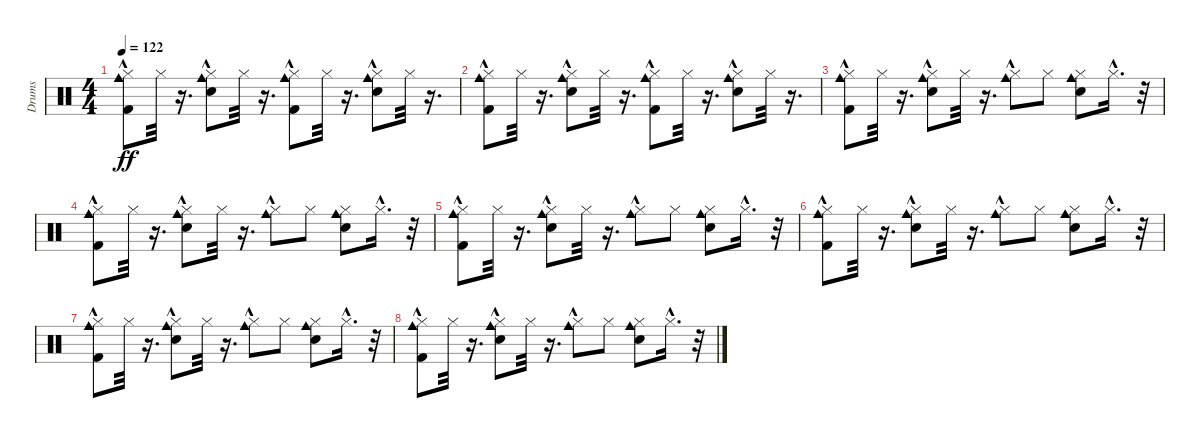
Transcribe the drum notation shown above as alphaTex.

\track ("Drums" "Drums") {instrument percussion}
\staff {score}
\articulation defaults
\ts (4 4)
\tempo 122
\clef neutral
\ks c
("Kick (hit) 2"{hac} "Hi-Hat (closed)"{hac} "Cowbell medium (hit)").8{dy ff volume 9} "Hi-Hat (closed)".32{volume 9} r.16{d} ("Snare (hit) 2"{hac} "Hi-Hat (closed)"{hac} "Cowbell medium (hit)").8{volume 8} "Hi-Hat (closed)".32{volume 8} r.16{d} ("Kick (hit) 2"{hac} "Hi-Hat (closed)"{hac} "Cowbell medium (hit)").8{volume 8} "Hi-Hat (closed)".32{volume 8} r.16{d} ("Cowbell medium (hit)" "Snare (hit) 2"{hac} "Hi-Hat (closed)"{hac}).8{volume 8} "Hi-Hat (closed)".32{volume 8} r.16{d} |
("Kick (hit) 2"{hac} "Hi-Hat (closed)"{hac} "Cowbell medium (hit)").8{volume 8} "Hi-Hat (closed)".32{volume 8} r.16{d} ("Snare (hit) 2"{hac} "Hi-Hat (closed)"{hac} "Cowbell medium (hit)").8{volume 8} "Hi-Hat (closed)".32{volume 7} r.16{d} ("Kick (hit) 2"{hac} "Hi-Hat (closed)"{hac} "Cowbell medium (hit)").8{volume 7} "Hi-Hat (closed)".32{volume 7} r.16{d} ("Cowbell medium (hit)" "Snare (hit) 2"{hac} "Hi-Hat (closed)"{hac}).8{volume 7} "Hi-Hat (closed)".32{volume 7} r.16{d} |
("Kick (hit) 2"{hac} "Hi-Hat (closed)"{hac} "Cowbell medium (hit)").8{volume 7} "Hi-Hat (closed)".32{volume 6} r.16{d} ("Snare (hit) 2"{hac} "Hi-Hat (closed)"{hac} "Cowbell medium (hit)").8{volume 6} "Hi-Hat (closed)".32{volume 6} r.16{d} ("Hi-Hat (closed)" "Cowbell medium (hit)"{hac}).8{volume 6} "Hi-Hat (closed)".8{volume 6} ("Cowbell medium (hit)" "Snare (hit) 2" "Hi-Hat (closed)").8{volume 6} "Hi-Hat (closed)"{hac}.16{d volume 6} r.32 |
("Kick (hit) 2"{hac} "Hi-Hat (closed)"{hac} "Cowbell medium (hit)").8{volume 6} "Hi-Hat (closed)".32{volume 5} r.16{d} ("Snare (hit) 2"{hac} "Hi-Hat (closed)"{hac} "Cowbell medium (hit)").8{volume 5} "Hi-Hat (closed)".32{volume 5} r.16{d} ("Hi-Hat (closed)" "Cowbell medium (hit)"{hac}).8{volume 5} "Hi-Hat (closed)".8{volume 5} ("Cowbell medium (hit)" "Snare (hit) 2" "Hi-Hat (closed)").8{volume 5} "Hi-Hat (closed)"{hac}.16{d volume 5} r.32 |
("Kick (hit) 2"{hac} "Hi-Hat (closed)"{hac} "Cowbell medium (hit)").8{volume 4} "Hi-Hat (closed)".32{volume 4} r.16{d} ("Snare (hit) 2"{hac} "Hi-Hat (closed)"{hac} "Cowbell medium (hit)").8{volume 4} "Hi-Hat (closed)".32{volume 4} r.16{d} ("Hi-Hat (closed)" "Cowbell medium (hit)"{hac}).8{volume 4} "Hi-Hat (closed)".8{volume 4} ("Cowbell medium (hit)" "Snare (hit) 2" "Hi-Hat (closed)").8{volume 4} "Hi-Hat (closed)"{hac}.16{d volume 4} r.32 |
("Kick (hit) 2"{hac} "Hi-Hat (closed)"{hac} "Cowbell medium (hit)").8{volume 3} "Hi-Hat (closed)".32{volume 3} r.16{d} ("Snare (hit) 2"{hac} "Hi-Hat (closed)"{hac} "Cowbell medium (hit)").8{volume 3} "Hi-Hat (closed)".32{volume 3} r.16{d} ("Hi-Hat (closed)" "Cowbell medium (hit)"{hac}).8{volume 3} "Hi-Hat (closed)".8{volume 3} ("Cowbell medium (hit)" "Snare (hit) 2" "Hi-Hat (closed)").8{volume 3} "Hi-Hat (closed)"{hac}.16{d volume 2} r.32 |
("Kick (hit) 2"{hac} "Hi-Hat (closed)"{hac} "Cowbell medium (hit)").8{volume 2} "Hi-Hat (closed)".32{volume 2} r.16{d} ("Snare (hit) 2"{hac} "Hi-Hat (closed)"{hac} "Cowbell medium (hit)").8{volume 2} "Hi-Hat (closed)".32{volume 2} r.16{d} ("Hi-Hat (closed)" "Cowbell medium (hit)"{hac}).8{volume 2} "Hi-Hat (closed)".8{volume 2} ("Cowbell medium (hit)" "Snare (hit) 2" "Hi-Hat (closed)").8{volume 2} "Hi-Hat (closed)"{hac}.16{d volume 1} r.32 |
("Kick (hit) 2"{hac} "Hi-Hat (closed)"{hac} "Cowbell medium (hit)").8{volume 1} "Hi-Hat (closed)".32{volume 1} r.16{d} ("Snare (hit) 2"{hac} "Hi-Hat (closed)"{hac} "Cowbell medium (hit)").8{volume 1} "Hi-Hat (closed)".32{volume 1} r.16{d} ("Hi-Hat (closed)" "Cowbell medium (hit)"{hac}).8{volume 1} "Hi-Hat (closed)".8{volume 0} ("Cowbell medium (hit)" "Snare (hit) 2" "Hi-Hat (closed)").8{volume 0} "Hi-Hat (closed)"{hac}.16{d volume 0} r.32
